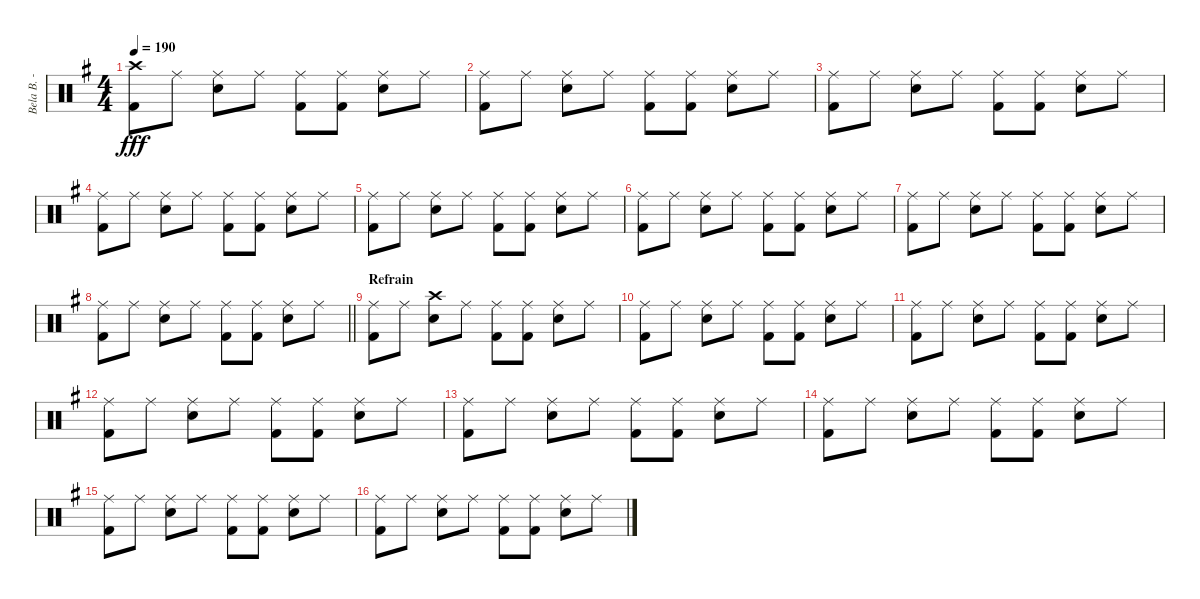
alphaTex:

\track ("Bela B. - Drums" "Bela B. - ") {instrument percussion}
\staff {score}
\articulation defaults
\ts (4 4)
\tempo 190
\clef neutral
\ks g
("Crash high (hit)" "Kick (hit) 2").8{dy fff} "Ride (middle)".8 ("Ride (middle)" "Snare (hit) 2").8 "Ride (middle)".8 ("Ride (middle)" "Kick (hit) 2").8 ("Ride (middle)" "Kick (hit) 2").8 ("Ride (middle)" "Snare (hit) 2").8 "Ride (middle)".8 |
("Ride (middle)" "Kick (hit) 2").8 "Ride (middle)".8 ("Ride (middle)" "Snare (hit) 2").8 "Ride (middle)".8 ("Ride (middle)" "Kick (hit) 2").8 ("Ride (middle)" "Kick (hit) 2").8 ("Ride (middle)" "Snare (hit) 2").8 "Ride (middle)".8 |
("Ride (middle)" "Kick (hit) 2").8 "Ride (middle)".8 ("Ride (middle)" "Snare (hit) 2").8 "Ride (middle)".8 ("Ride (middle)" "Kick (hit) 2").8 ("Ride (middle)" "Kick (hit) 2").8 ("Ride (middle)" "Snare (hit) 2").8 "Ride (middle)".8 |
("Ride (middle)" "Kick (hit) 2").8 "Ride (middle)".8 ("Ride (middle)" "Snare (hit) 2").8 "Ride (middle)".8 ("Ride (middle)" "Kick (hit) 2").8 ("Ride (middle)" "Kick (hit) 2").8 ("Ride (middle)" "Snare (hit) 2").8 "Ride (middle)".8 |
("Ride (middle)" "Kick (hit) 2").8 "Ride (middle)".8 ("Ride (middle)" "Snare (hit) 2").8 "Ride (middle)".8 ("Ride (middle)" "Kick (hit) 2").8 ("Ride (middle)" "Kick (hit) 2").8 ("Ride (middle)" "Snare (hit) 2").8 "Ride (middle)".8 |
("Ride (middle)" "Kick (hit) 2").8 "Ride (middle)".8 ("Ride (middle)" "Snare (hit) 2").8 "Ride (middle)".8 ("Ride (middle)" "Kick (hit) 2").8 ("Ride (middle)" "Kick (hit) 2").8 ("Ride (middle)" "Snare (hit) 2").8 "Ride (middle)".8 |
("Ride (middle)" "Kick (hit) 2").8 "Ride (middle)".8 ("Ride (middle)" "Snare (hit) 2").8 "Ride (middle)".8 ("Ride (middle)" "Kick (hit) 2").8 ("Ride (middle)" "Kick (hit) 2").8 ("Ride (middle)" "Snare (hit) 2").8 "Ride (middle)".8 |
\barLineRight lightlight
("Ride (middle)" "Kick (hit) 2").8 "Ride (middle)".8 ("Ride (middle)" "Snare (hit) 2").8 "Ride (middle)".8 ("Ride (middle)" "Kick (hit) 2").8 ("Ride (middle)" "Kick (hit) 2").8 ("Ride (middle)" "Snare (hit) 2").8 "Ride (middle)".8 |
\section ("" "Refrain")
("Ride (middle)" "Kick (hit) 2").8 "Ride (middle)".8 ("Crash high (hit)" "Snare (hit) 2").8 "Ride (middle)".8 ("Ride (middle)" "Kick (hit) 2").8 ("Ride (middle)" "Kick (hit) 2").8 ("Ride (middle)" "Snare (hit) 2").8 "Ride (middle)".8 |
("Ride (middle)" "Kick (hit) 2").8 "Ride (middle)".8 ("Ride (middle)" "Snare (hit) 2").8 "Ride (middle)".8 ("Ride (middle)" "Kick (hit) 2").8 ("Ride (middle)" "Kick (hit) 2").8 ("Ride (middle)" "Snare (hit) 2").8 "Ride (middle)".8 |
("Ride (middle)" "Kick (hit) 2").8 "Ride (middle)".8 ("Ride (middle)" "Snare (hit) 2").8 "Ride (middle)".8 ("Ride (middle)" "Kick (hit) 2").8 ("Ride (middle)" "Kick (hit) 2").8 ("Ride (middle)" "Snare (hit) 2").8 "Ride (middle)".8 |
("Ride (middle)" "Kick (hit) 2").8 "Ride (middle)".8 ("Ride (middle)" "Snare (hit) 2").8 "Ride (middle)".8 ("Ride (middle)" "Kick (hit) 2").8 ("Ride (middle)" "Kick (hit) 2").8 ("Ride (middle)" "Snare (hit) 2").8 "Ride (middle)".8 |
("Ride (middle)" "Kick (hit) 2").8 "Ride (middle)".8 ("Ride (middle)" "Snare (hit) 2").8 "Ride (middle)".8 ("Ride (middle)" "Kick (hit) 2").8 ("Ride (middle)" "Kick (hit) 2").8 ("Ride (middle)" "Snare (hit) 2").8 "Ride (middle)".8 |
("Ride (middle)" "Kick (hit) 2").8 "Ride (middle)".8 ("Ride (middle)" "Snare (hit) 2").8 "Ride (middle)".8 ("Ride (middle)" "Kick (hit) 2").8 ("Ride (middle)" "Kick (hit) 2").8 ("Ride (middle)" "Snare (hit) 2").8 "Ride (middle)".8 |
("Ride (middle)" "Kick (hit) 2").8 "Ride (middle)".8 ("Ride (middle)" "Snare (hit) 2").8 "Ride (middle)".8 ("Ride (middle)" "Kick (hit) 2").8 ("Ride (middle)" "Kick (hit) 2").8 ("Ride (middle)" "Snare (hit) 2").8 "Ride (middle)".8 |
("Ride (middle)" "Kick (hit) 2").8 "Ride (middle)".8 ("Ride (middle)" "Snare (hit) 2").8 "Ride (middle)".8 ("Ride (middle)" "Kick (hit) 2").8 ("Ride (middle)" "Kick (hit) 2").8 ("Ride (middle)" "Snare (hit) 2").8 "Ride (middle)".8
